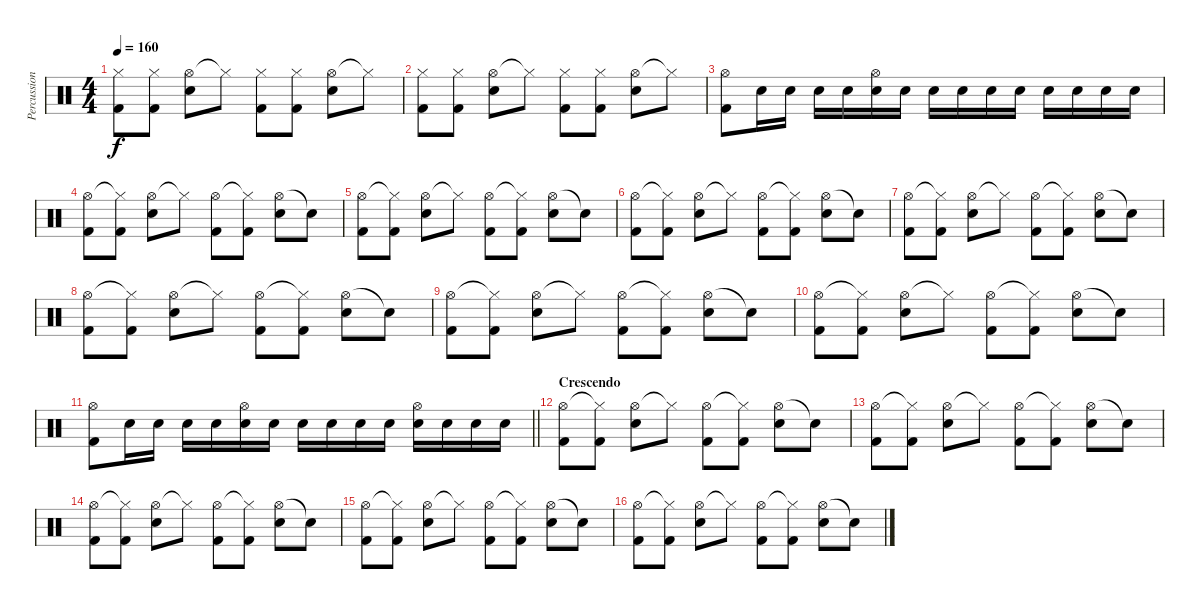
\track ("Percussions" "Percussion") {instrument percussion}
\staff {score}
\articulation defaults
\ts (4 4)
\tempo 160
\clef neutral
\ks c
("Hi-Hat (closed)" "Kick (hit) 2").8{dy f} ("Hi-Hat (closed)" "Kick (hit) 2").8 ("Hi-Hat (open)" "Snare (hit) 2").8 "Hi-Hat (closed)"{t}.8 ("Hi-Hat (closed)" "Kick (hit) 2").8 ("Hi-Hat (closed)" "Kick (hit) 2").8 ("Hi-Hat (open)" "Snare (hit) 2").8 "Hi-Hat (closed)"{t}.8 |
("Hi-Hat (closed)" "Kick (hit) 2").8 ("Hi-Hat (closed)" "Kick (hit) 2").8 ("Hi-Hat (open)" "Snare (hit) 2").8 "Hi-Hat (closed)"{t}.8 ("Hi-Hat (closed)" "Kick (hit) 2").8 ("Hi-Hat (closed)" "Kick (hit) 2").8 ("Hi-Hat (open)" "Snare (hit) 2").8 "Hi-Hat (closed)"{t}.8 |
("Hi-Hat (open)" "Kick (hit) 2").8 "Snare (hit) 2".16 "Snare (hit) 2".16 "Snare (hit) 2".16 "Snare (hit) 2".16 ("Hi-Hat (open)" "Snare (hit) 2").16 "Snare (hit) 2".16 "Snare (hit) 2".16 "Snare (hit) 2".16 "Snare (hit) 2".16 "Snare (hit) 2".16 "Snare (hit) 2".16 "Snare (hit) 2".16 "Snare (hit) 2".16 "Snare (hit) 2".16 |
("Hi-Hat (open)" "Kick (hit) 2").8 ("Hi-Hat (closed)"{t} "Kick (hit) 2").8 ("Hi-Hat (open)" "Snare (hit) 2").8 "Hi-Hat (closed)"{t}.8 ("Hi-Hat (open)" "Kick (hit) 2").8 ("Hi-Hat (closed)"{t} "Kick (hit) 2").8 ("Hi-Hat (open)" "Snare (hit) 2").8 "Snare (hit)"{t}.8 |
("Hi-Hat (open)" "Kick (hit) 2").8 ("Hi-Hat (closed)"{t} "Kick (hit) 2").8 ("Hi-Hat (open)" "Snare (hit) 2").8 "Hi-Hat (closed)"{t}.8 ("Hi-Hat (open)" "Kick (hit) 2").8 ("Hi-Hat (closed)"{t} "Kick (hit) 2").8 ("Hi-Hat (open)" "Snare (hit) 2").8 "Snare (hit)"{t}.8 |
("Hi-Hat (open)" "Kick (hit) 2").8 ("Hi-Hat (closed)"{t} "Kick (hit) 2").8 ("Hi-Hat (open)" "Snare (hit) 2").8 "Hi-Hat (closed)"{t}.8 ("Hi-Hat (open)" "Kick (hit) 2").8 ("Hi-Hat (closed)"{t} "Kick (hit) 2").8 ("Hi-Hat (open)" "Snare (hit) 2").8 "Snare (hit)"{t}.8 |
("Hi-Hat (open)" "Kick (hit) 2").8 ("Hi-Hat (closed)"{t} "Kick (hit) 2").8 ("Hi-Hat (open)" "Snare (hit) 2").8 "Hi-Hat (closed)"{t}.8 ("Hi-Hat (open)" "Kick (hit) 2").8 ("Hi-Hat (closed)"{t} "Kick (hit) 2").8 ("Hi-Hat (open)" "Snare (hit) 2").8 "Snare (hit)"{t}.8 |
("Hi-Hat (open)" "Kick (hit) 2").8 ("Hi-Hat (closed)"{t} "Kick (hit) 2").8 ("Hi-Hat (open)" "Snare (hit) 2").8 "Hi-Hat (closed)"{t}.8 ("Hi-Hat (open)" "Kick (hit) 2").8 ("Hi-Hat (closed)"{t} "Kick (hit) 2").8 ("Hi-Hat (open)" "Snare (hit) 2").8 "Snare (hit)"{t}.8 |
("Hi-Hat (open)" "Kick (hit) 2").8 ("Hi-Hat (closed)"{t} "Kick (hit) 2").8 ("Hi-Hat (open)" "Snare (hit) 2").8 "Hi-Hat (closed)"{t}.8 ("Hi-Hat (open)" "Kick (hit) 2").8 ("Hi-Hat (closed)"{t} "Kick (hit) 2").8 ("Hi-Hat (open)" "Snare (hit) 2").8 "Snare (hit)"{t}.8 |
("Hi-Hat (open)" "Kick (hit) 2").8 ("Hi-Hat (closed)"{t} "Kick (hit) 2").8 ("Hi-Hat (open)" "Snare (hit) 2").8 "Hi-Hat (closed)"{t}.8 ("Hi-Hat (open)" "Kick (hit) 2").8 ("Hi-Hat (closed)"{t} "Kick (hit) 2").8 ("Hi-Hat (open)" "Snare (hit) 2").8 "Snare (hit)"{t}.8 |
\barLineRight lightlight
("Hi-Hat (open)" "Kick (hit) 2").8 "Snare (hit) 2".16 "Snare (hit) 2".16 "Snare (hit) 2".16 "Snare (hit) 2".16 ("Hi-Hat (open)" "Snare (hit) 2").16 "Snare (hit) 2".16 "Snare (hit) 2".16 "Snare (hit) 2".16 "Snare (hit) 2".16 "Snare (hit) 2".16 ("Hi-Hat (open)" "Snare (hit) 2").16 "Snare (hit) 2".16 "Snare (hit) 2".16 "Snare (hit) 2".16 |
\section ("" "Crescendo")
("Hi-Hat (open)" "Kick (hit) 2").8 ("Hi-Hat (closed)"{t} "Kick (hit) 2").8 ("Hi-Hat (open)" "Snare (hit) 2").8 "Hi-Hat (closed)"{t}.8 ("Hi-Hat (open)" "Kick (hit) 2").8 ("Hi-Hat (closed)"{t} "Kick (hit) 2").8 ("Hi-Hat (open)" "Snare (hit) 2").8 "Snare (hit)"{t}.8 |
("Hi-Hat (open)" "Kick (hit) 2").8 ("Hi-Hat (closed)"{t} "Kick (hit) 2").8 ("Hi-Hat (open)" "Snare (hit) 2").8 "Hi-Hat (closed)"{t}.8 ("Hi-Hat (open)" "Kick (hit) 2").8 ("Hi-Hat (closed)"{t} "Kick (hit) 2").8 ("Hi-Hat (open)" "Snare (hit) 2").8 "Snare (hit)"{t}.8 |
("Hi-Hat (open)" "Kick (hit) 2").8 ("Hi-Hat (closed)"{t} "Kick (hit) 2").8 ("Hi-Hat (open)" "Snare (hit) 2").8 "Hi-Hat (closed)"{t}.8 ("Hi-Hat (open)" "Kick (hit) 2").8 ("Hi-Hat (closed)"{t} "Kick (hit) 2").8 ("Hi-Hat (open)" "Snare (hit) 2").8 "Snare (hit)"{t}.8 |
("Hi-Hat (open)" "Kick (hit) 2").8 ("Hi-Hat (closed)"{t} "Kick (hit) 2").8 ("Hi-Hat (open)" "Snare (hit) 2").8 "Hi-Hat (closed)"{t}.8 ("Hi-Hat (open)" "Kick (hit) 2").8 ("Hi-Hat (closed)"{t} "Kick (hit) 2").8 ("Hi-Hat (open)" "Snare (hit) 2").8 "Snare (hit)"{t}.8 |
("Hi-Hat (open)" "Kick (hit) 2").8 ("Hi-Hat (closed)"{t} "Kick (hit) 2").8 ("Hi-Hat (open)" "Snare (hit) 2").8 "Hi-Hat (closed)"{t}.8 ("Hi-Hat (open)" "Kick (hit) 2").8 ("Hi-Hat (closed)"{t} "Kick (hit) 2").8 ("Hi-Hat (open)" "Snare (hit) 2").8 "Snare (hit)"{t}.8
